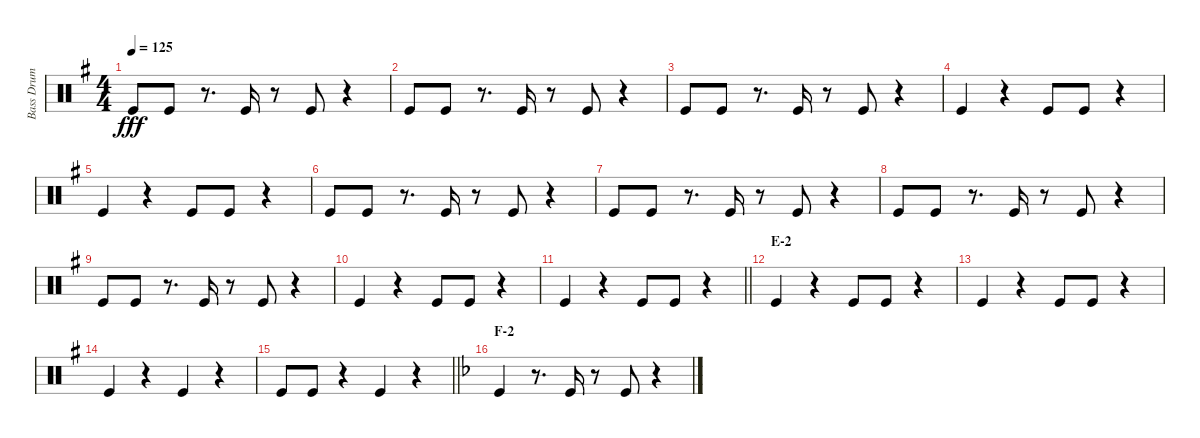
\track ("Bass Drum" "Bass Drum") {instrument percussion}
\staff {score}
\articulation defaults
\ts (4 4)
\tempo 125
\clef neutral
\ks g "Kick (hit)".8{dy fff} "Kick (hit)".8
r.8{d} "Kick (hit)".16 r.8 "Kick (hit)".8 r.4 |
"Kick (hit)".8 "Kick (hit)".8 r.8{d} "Kick (hit)".16 r.8 "Kick (hit)".8 r.4 |
"Kick (hit)".8 "Kick (hit)".8 r.8{d} "Kick (hit)".16 r.8 "Kick (hit)".8 r.4 |
"Kick (hit)".4 r.4 "Kick (hit)".8 "Kick (hit)".8 r.4 |
"Kick (hit)".4 r.4 "Kick (hit)".8 "Kick (hit)".8 r.4 |
"Kick (hit)".8 "Kick (hit)".8 r.8{d} "Kick (hit)".16 r.8 "Kick (hit)".8 r.4 |
"Kick (hit)".8 "Kick (hit)".8 r.8{d} "Kick (hit)".16 r.8 "Kick (hit)".8 r.4 |
"Kick (hit)".8 "Kick (hit)".8 r.8{d} "Kick (hit)".16 r.8 "Kick (hit)".8 r.4 |
"Kick (hit)".8 "Kick (hit)".8 r.8{d} "Kick (hit)".16 r.8 "Kick (hit)".8 r.4 |
"Kick (hit)".4 r.4 "Kick (hit)".8 "Kick (hit)".8 r.4 |
\barLineRight lightlight "Kick (hit)".4
r.4 "Kick (hit)".8 "Kick (hit)".8 r.4 |
\section ("" "E-2")
"Kick (hit)".4 r.4 "Kick (hit)".8 "Kick (hit)".8 r.4 |
"Kick (hit)".4 r.4 "Kick (hit)".8 "Kick (hit)".8 r.4 |
"Kick (hit)".4 r.4 "Kick (hit)".4 r.4 |
\barLineRight lightlight "Kick (hit)".8 "Kick (hit)".8
r.4 "Kick (hit)".4 r.4 |
\section ("" "F-2")
\ks f "Kick (hit)".4
r.8{d} "Kick (hit)".16 r.8 "Kick (hit)".8 r.4
